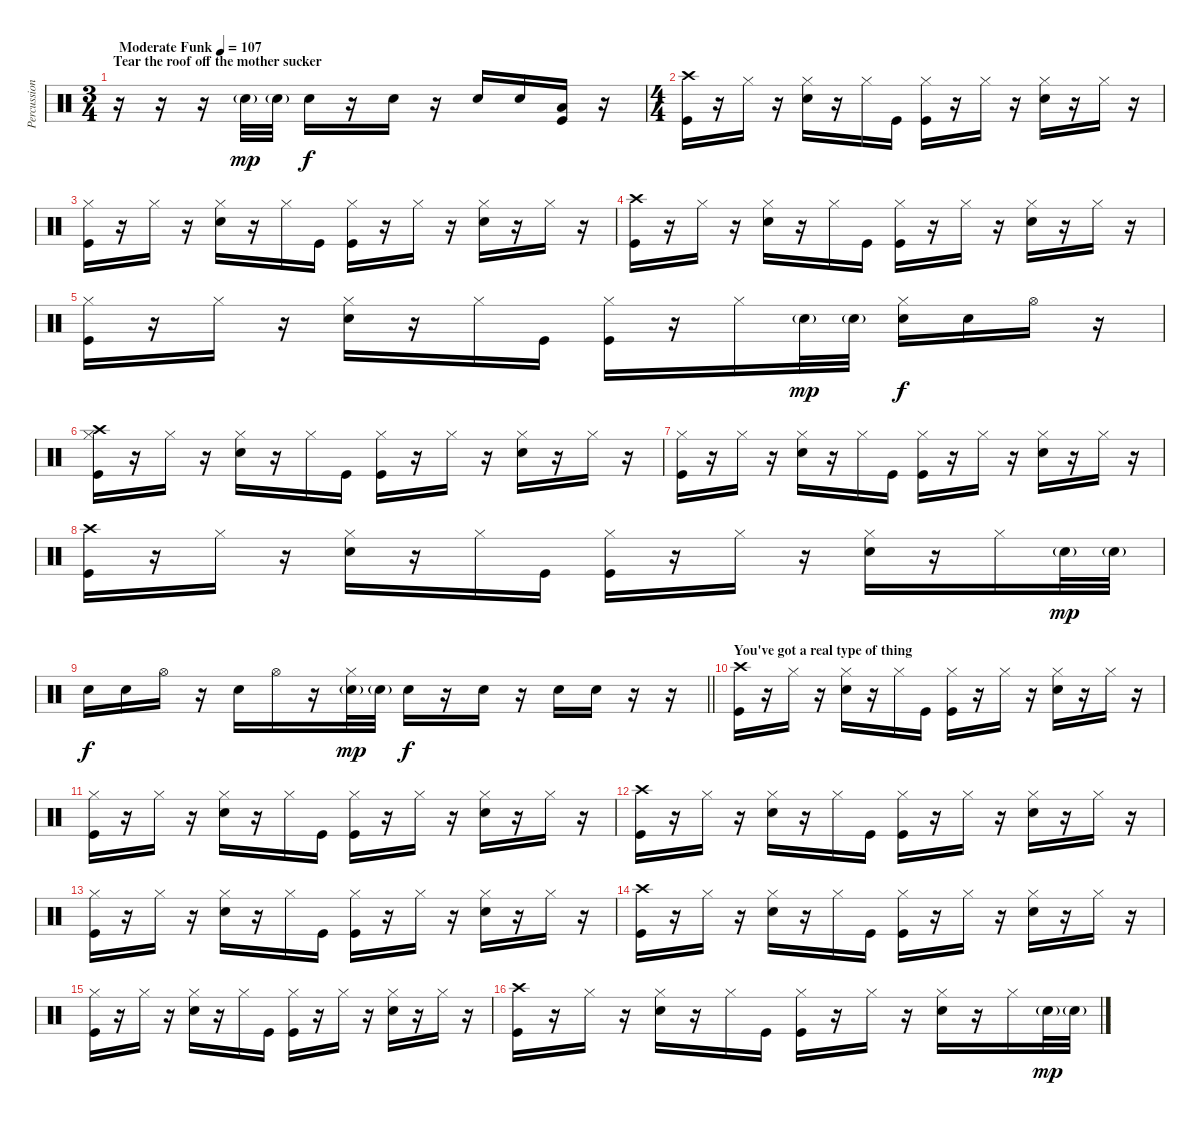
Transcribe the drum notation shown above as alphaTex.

\track ("Percussion" "Percussion") {instrument percussion}
\staff {score}
\articulation defaults
\ts (3 4)
\section ("" "Tear the roof off the mother sucker")
\tempo (107 "Moderate Funk")
\clef neutral
\ks c
r.16{dy mp} r.16 r.16 "Snare (hit) 2"{g}.32 "Snare (hit) 2"{g}.32 "Snare (hit) 2".16{dy f} r.16 "Snare (hit) 2".16 r.16 "Snare (hit) 2".16 "Snare (hit) 2".16 ("Low Tom (hit)" "Kick (hit)").16 r.16 |
\ts (4 4)
("Crash high (hit)" "Kick (hit)").16 r.16 "Hi-Hat (closed)".16 r.16 ("Hi-Hat (closed)" "Snare (hit) 2").16 r.16 "Hi-Hat (closed)".16 "Kick (hit)".16 ("Hi-Hat (closed)" "Kick (hit)").16 r.16 "Hi-Hat (closed)".16 r.16 ("Hi-Hat (closed)" "Snare (hit) 2").16 r.16 "Hi-Hat (closed)".16 r.16 |
("Hi-Hat (closed)" "Kick (hit)").16 r.16 "Hi-Hat (closed)".16 r.16 ("Hi-Hat (closed)" "Snare (hit) 2").16 r.16 "Hi-Hat (closed)".16 "Kick (hit)".16 ("Hi-Hat (closed)" "Kick (hit)").16 r.16 "Hi-Hat (closed)".16 r.16 ("Hi-Hat (closed)" "Snare (hit) 2").16 r.16 "Hi-Hat (closed)".16 r.16 |
("Crash high (hit)" "Kick (hit)").16 r.16 "Hi-Hat (closed)".16 r.16 ("Hi-Hat (closed)" "Snare (hit) 2").16 r.16 "Hi-Hat (closed)".16 "Kick (hit)".16 ("Hi-Hat (closed)" "Kick (hit)").16 r.16 "Hi-Hat (closed)".16 r.16 ("Hi-Hat (closed)" "Snare (hit) 2").16 r.16 "Hi-Hat (closed)".16 r.16 |
("Hi-Hat (closed)" "Kick (hit)").16 r.16 "Hi-Hat (closed)".16 r.16 ("Hi-Hat (closed)" "Snare (hit) 2").16 r.16 "Hi-Hat (closed)".16 "Kick (hit)".16 ("Hi-Hat (closed)" "Kick (hit)").16 r.16 "Hi-Hat (closed)".16 "Snare (hit) 2"{g}.32{dy mp} "Snare (hit) 2"{g}.32 ("Hi-Hat (closed)" "Snare (hit) 2").16{dy f} "Snare (hit) 2".16 "Hi-Hat (open)".16 r.16 |
("Crash high (hit)" "Hi-Hat (closed)" "Kick (hit)").16 r.16 "Hi-Hat (closed)".16 r.16 ("Hi-Hat (closed)" "Snare (hit) 2").16 r.16 "Hi-Hat (closed)".16 "Kick (hit)".16 ("Hi-Hat (closed)" "Kick (hit)").16 r.16 "Hi-Hat (closed)".16 r.16 ("Hi-Hat (closed)" "Snare (hit) 2").16 r.16 "Hi-Hat (closed)".16 r.16 |
("Hi-Hat (closed)" "Kick (hit)").16 r.16 "Hi-Hat (closed)".16 r.16 ("Hi-Hat (closed)" "Snare (hit) 2").16 r.16 "Hi-Hat (closed)".16 "Kick (hit)".16 ("Hi-Hat (closed)" "Kick (hit)").16 r.16 "Hi-Hat (closed)".16 r.16 ("Hi-Hat (closed)" "Snare (hit) 2").16 r.16 "Hi-Hat (closed)".16 r.16 |
("Crash high (hit)" "Kick (hit)").16 r.16 "Hi-Hat (closed)".16 r.16 ("Hi-Hat (closed)" "Snare (hit) 2").16 r.16 "Hi-Hat (closed)".16 "Kick (hit)".16 ("Hi-Hat (closed)" "Kick (hit)").16 r.16 "Hi-Hat (closed)".16 r.16 ("Hi-Hat (closed)" "Snare (hit) 2").16 r.16 "Hi-Hat (closed)".16 "Snare (hit) 2"{g}.32{dy mp} "Snare (hit) 2"{g}.32 |
\barLineRight lightlight "Snare (hit) 2".16{dy f} "Snare (hit) 2".16 "Hi-Hat (open)".16
r.16 "Snare (hit) 2".16 "Hi-Hat (open)".16 r.16 ("Hi-Hat (closed)" "Snare (hit) 2"{g}).32{dy mp} "Snare (hit) 2"{g}.32 "Snare (hit) 2".16{dy f} r.16 "Snare (hit) 2".16 r.16 "Snare (hit) 2".16 "Snare (hit) 2".16 r.16 r.16 |
\section ("" "You've got a real type of thing")
("Crash high (hit)" "Kick (hit)").16 r.16 "Hi-Hat (closed)".16 r.16 ("Hi-Hat (closed)" "Snare (hit) 2").16 r.16 "Hi-Hat (closed)".16 "Kick (hit)".16 ("Hi-Hat (closed)" "Kick (hit)").16 r.16 "Hi-Hat (closed)".16 r.16 ("Hi-Hat (closed)" "Snare (hit) 2").16 r.16 "Hi-Hat (closed)".16 r.16 |
("Hi-Hat (closed)" "Kick (hit)").16 r.16 "Hi-Hat (closed)".16 r.16 ("Hi-Hat (closed)" "Snare (hit) 2").16 r.16 "Hi-Hat (closed)".16 "Kick (hit)".16 ("Hi-Hat (closed)" "Kick (hit)").16 r.16 "Hi-Hat (closed)".16 r.16 ("Hi-Hat (closed)" "Snare (hit) 2").16 r.16 "Hi-Hat (closed)".16 r.16 |
("Crash high (hit)" "Kick (hit)").16 r.16 "Hi-Hat (closed)".16 r.16 ("Hi-Hat (closed)" "Snare (hit) 2").16 r.16 "Hi-Hat (closed)".16 "Kick (hit)".16 ("Hi-Hat (closed)" "Kick (hit)").16 r.16 "Hi-Hat (closed)".16 r.16 ("Hi-Hat (closed)" "Snare (hit) 2").16 r.16 "Hi-Hat (closed)".16 r.16 |
("Hi-Hat (closed)" "Kick (hit)").16 r.16 "Hi-Hat (closed)".16 r.16 ("Hi-Hat (closed)" "Snare (hit) 2").16 r.16 "Hi-Hat (closed)".16 "Kick (hit)".16 ("Hi-Hat (closed)" "Kick (hit)").16 r.16 "Hi-Hat (closed)".16 r.16 ("Hi-Hat (closed)" "Snare (hit) 2").16 r.16 "Hi-Hat (closed)".16 r.16 |
("Crash high (hit)" "Kick (hit)").16 r.16 "Hi-Hat (closed)".16 r.16 ("Hi-Hat (closed)" "Snare (hit) 2").16 r.16 "Hi-Hat (closed)".16 "Kick (hit)".16 ("Hi-Hat (closed)" "Kick (hit)").16 r.16 "Hi-Hat (closed)".16 r.16 ("Hi-Hat (closed)" "Snare (hit) 2").16 r.16 "Hi-Hat (closed)".16 r.16 |
("Hi-Hat (closed)" "Kick (hit)").16 r.16 "Hi-Hat (closed)".16 r.16 ("Hi-Hat (closed)" "Snare (hit) 2").16 r.16 "Hi-Hat (closed)".16 "Kick (hit)".16 ("Hi-Hat (closed)" "Kick (hit)").16 r.16 "Hi-Hat (closed)".16 r.16 ("Hi-Hat (closed)" "Snare (hit) 2").16 r.16 "Hi-Hat (closed)".16 r.16 |
("Crash high (hit)" "Kick (hit)").16 r.16 "Hi-Hat (closed)".16 r.16 ("Hi-Hat (closed)" "Snare (hit) 2").16 r.16 "Hi-Hat (closed)".16 "Kick (hit)".16 ("Hi-Hat (closed)" "Kick (hit)").16 r.16 "Hi-Hat (closed)".16 r.16 ("Hi-Hat (closed)" "Snare (hit) 2").16 r.16 "Hi-Hat (closed)".16 "Snare (hit) 2"{g}.32{dy mp} "Snare (hit) 2"{g}.32
